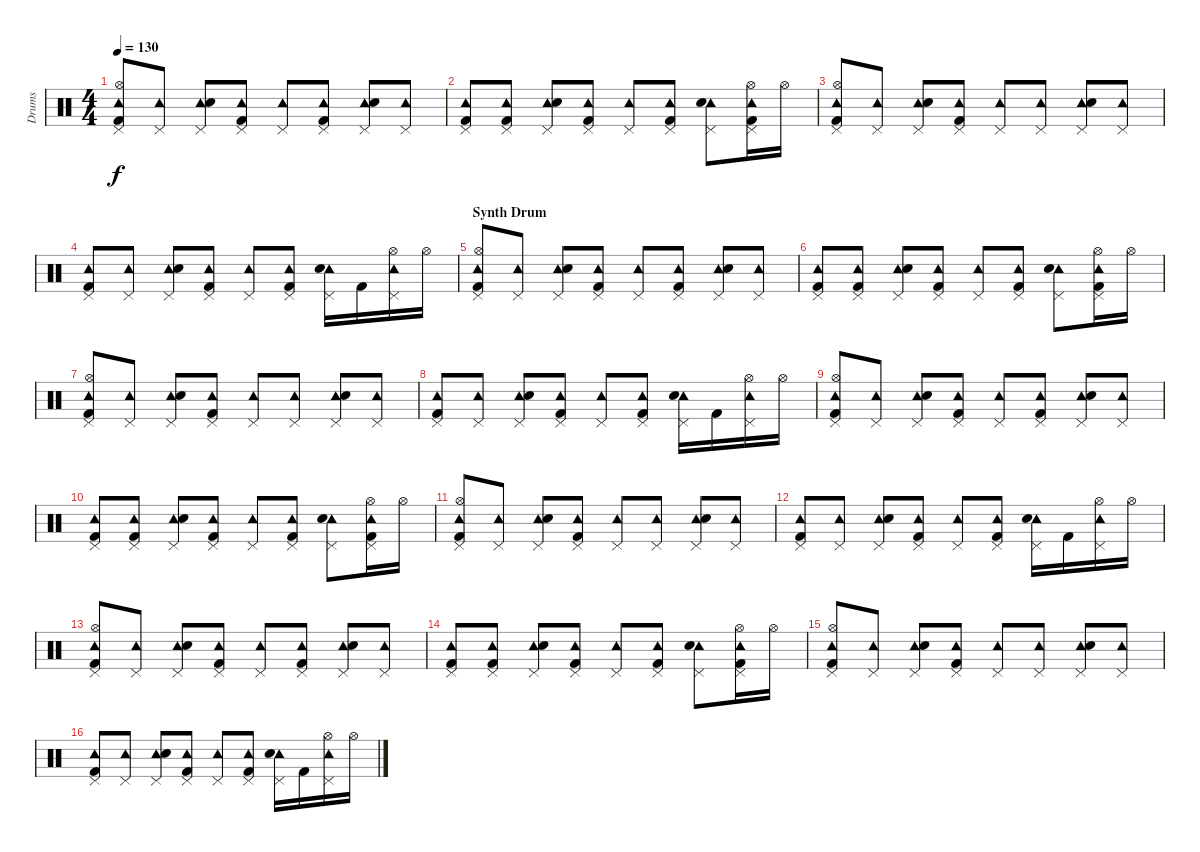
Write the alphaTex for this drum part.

\track ("Drums" "Drums") {instrument percussion}
\staff {score}
\articulation defaults
\ts (4 4)
\tempo 130
\clef neutral
\ks c
("Tambourine (hit)" "Pedal Hi-Hat (hit)" "Hi-Hat (open)" "Kick (hit) 2").8{dy f} ("Tambourine (hit)" "Pedal Hi-Hat (hit)").8 ("Tambourine (hit)" "Pedal Hi-Hat (hit)" "Electric Snare (hit)").8 ("Tambourine (hit)" "Pedal Hi-Hat (hit)" "Kick (hit) 2").8 ("Tambourine (hit)" "Pedal Hi-Hat (hit)").8 ("Tambourine (hit)" "Pedal Hi-Hat (hit)" "Kick (hit) 2").8 ("Tambourine (hit)" "Pedal Hi-Hat (hit)" "Electric Snare (hit)").8 ("Tambourine (hit)" "Pedal Hi-Hat (hit)").8 |
("Tambourine (hit)" "Pedal Hi-Hat (hit)" "Kick (hit) 2").8 ("Tambourine (hit)" "Pedal Hi-Hat (hit)" "Kick (hit) 2").8 ("Tambourine (hit)" "Pedal Hi-Hat (hit)" "Electric Snare (hit)").8 ("Tambourine (hit)" "Pedal Hi-Hat (hit)" "Kick (hit) 2").8 ("Tambourine (hit)" "Pedal Hi-Hat (hit)").8 ("Tambourine (hit)" "Pedal Hi-Hat (hit)" "Kick (hit) 2").8 ("Tambourine (hit)" "Pedal Hi-Hat (hit)" "Electric Snare (hit)").8 ("Tambourine (hit)" "Pedal Hi-Hat (hit)" "Hi-Hat (open)" "Kick (hit) 2").16 "Hi-Hat (open)".16 |
("Tambourine (hit)" "Pedal Hi-Hat (hit)" "Hi-Hat (open)" "Kick (hit) 2").8 ("Tambourine (hit)" "Pedal Hi-Hat (hit)").8 ("Tambourine (hit)" "Pedal Hi-Hat (hit)" "Electric Snare (hit)").8 ("Tambourine (hit)" "Pedal Hi-Hat (hit)" "Kick (hit) 2").8 ("Tambourine (hit)" "Pedal Hi-Hat (hit)").8 ("Tambourine (hit)" "Pedal Hi-Hat (hit)").8 ("Tambourine (hit)" "Pedal Hi-Hat (hit)" "Electric Snare (hit)").8 ("Tambourine (hit)" "Pedal Hi-Hat (hit)").8 |
("Tambourine (hit)" "Pedal Hi-Hat (hit)" "Kick (hit) 2").8 ("Tambourine (hit)" "Pedal Hi-Hat (hit)").8 ("Tambourine (hit)" "Pedal Hi-Hat (hit)" "Electric Snare (hit)").8 ("Tambourine (hit)" "Pedal Hi-Hat (hit)" "Kick (hit) 2").8 ("Tambourine (hit)" "Pedal Hi-Hat (hit)").8 ("Tambourine (hit)" "Pedal Hi-Hat (hit)" "Kick (hit) 2").8 ("Tambourine (hit)" "Pedal Hi-Hat (hit)" "Electric Snare (hit)").16 "Kick (hit) 2".16 ("Tambourine (hit)" "Pedal Hi-Hat (hit)" "Hi-Hat (open)").16 "Hi-Hat (open)".16 |
\section ("" "Synth Drum")
("Tambourine (hit)" "Pedal Hi-Hat (hit)" "Hi-Hat (open)" "Kick (hit) 2").8 ("Tambourine (hit)" "Pedal Hi-Hat (hit)").8 ("Tambourine (hit)" "Pedal Hi-Hat (hit)" "Electric Snare (hit)").8 ("Tambourine (hit)" "Pedal Hi-Hat (hit)" "Kick (hit) 2").8 ("Tambourine (hit)" "Pedal Hi-Hat (hit)").8 ("Tambourine (hit)" "Pedal Hi-Hat (hit)" "Kick (hit) 2").8 ("Tambourine (hit)" "Pedal Hi-Hat (hit)" "Electric Snare (hit)").8 ("Tambourine (hit)" "Pedal Hi-Hat (hit)").8 |
("Tambourine (hit)" "Pedal Hi-Hat (hit)" "Kick (hit) 2").8 ("Tambourine (hit)" "Pedal Hi-Hat (hit)" "Kick (hit) 2").8 ("Tambourine (hit)" "Pedal Hi-Hat (hit)" "Electric Snare (hit)").8 ("Tambourine (hit)" "Pedal Hi-Hat (hit)" "Kick (hit) 2").8 ("Tambourine (hit)" "Pedal Hi-Hat (hit)").8 ("Tambourine (hit)" "Pedal Hi-Hat (hit)" "Kick (hit) 2").8 ("Tambourine (hit)" "Pedal Hi-Hat (hit)" "Electric Snare (hit)").8 ("Tambourine (hit)" "Pedal Hi-Hat (hit)" "Hi-Hat (open)" "Kick (hit) 2").16 "Hi-Hat (open)".16 |
("Tambourine (hit)" "Pedal Hi-Hat (hit)" "Hi-Hat (open)" "Kick (hit) 2").8 ("Tambourine (hit)" "Pedal Hi-Hat (hit)").8 ("Tambourine (hit)" "Pedal Hi-Hat (hit)" "Electric Snare (hit)").8 ("Tambourine (hit)" "Pedal Hi-Hat (hit)" "Kick (hit) 2").8 ("Tambourine (hit)" "Pedal Hi-Hat (hit)").8 ("Tambourine (hit)" "Pedal Hi-Hat (hit)").8 ("Tambourine (hit)" "Pedal Hi-Hat (hit)" "Electric Snare (hit)").8 ("Tambourine (hit)" "Pedal Hi-Hat (hit)").8 |
("Tambourine (hit)" "Pedal Hi-Hat (hit)" "Kick (hit) 2").8 ("Tambourine (hit)" "Pedal Hi-Hat (hit)").8 ("Tambourine (hit)" "Pedal Hi-Hat (hit)" "Electric Snare (hit)").8 ("Tambourine (hit)" "Pedal Hi-Hat (hit)" "Kick (hit) 2").8 ("Tambourine (hit)" "Pedal Hi-Hat (hit)").8 ("Tambourine (hit)" "Pedal Hi-Hat (hit)" "Kick (hit) 2").8 ("Tambourine (hit)" "Pedal Hi-Hat (hit)" "Electric Snare (hit)").16 "Kick (hit) 2".16 ("Tambourine (hit)" "Pedal Hi-Hat (hit)" "Hi-Hat (open)").16 "Hi-Hat (open)".16 |
("Tambourine (hit)" "Pedal Hi-Hat (hit)" "Hi-Hat (open)" "Kick (hit) 2").8 ("Tambourine (hit)" "Pedal Hi-Hat (hit)").8 ("Tambourine (hit)" "Pedal Hi-Hat (hit)" "Electric Snare (hit)").8 ("Tambourine (hit)" "Pedal Hi-Hat (hit)" "Kick (hit) 2").8 ("Tambourine (hit)" "Pedal Hi-Hat (hit)").8 ("Tambourine (hit)" "Pedal Hi-Hat (hit)" "Kick (hit) 2").8 ("Tambourine (hit)" "Pedal Hi-Hat (hit)" "Electric Snare (hit)").8 ("Tambourine (hit)" "Pedal Hi-Hat (hit)").8 |
("Tambourine (hit)" "Pedal Hi-Hat (hit)" "Kick (hit) 2").8 ("Tambourine (hit)" "Pedal Hi-Hat (hit)" "Kick (hit) 2").8 ("Tambourine (hit)" "Pedal Hi-Hat (hit)" "Electric Snare (hit)").8 ("Tambourine (hit)" "Pedal Hi-Hat (hit)" "Kick (hit) 2").8 ("Tambourine (hit)" "Pedal Hi-Hat (hit)").8 ("Tambourine (hit)" "Pedal Hi-Hat (hit)" "Kick (hit) 2").8 ("Tambourine (hit)" "Pedal Hi-Hat (hit)" "Electric Snare (hit)").8 ("Tambourine (hit)" "Pedal Hi-Hat (hit)" "Hi-Hat (open)" "Kick (hit) 2").16 "Hi-Hat (open)".16 |
("Tambourine (hit)" "Pedal Hi-Hat (hit)" "Hi-Hat (open)" "Kick (hit) 2").8 ("Tambourine (hit)" "Pedal Hi-Hat (hit)").8 ("Tambourine (hit)" "Pedal Hi-Hat (hit)" "Electric Snare (hit)").8 ("Tambourine (hit)" "Pedal Hi-Hat (hit)" "Kick (hit) 2").8 ("Tambourine (hit)" "Pedal Hi-Hat (hit)").8 ("Tambourine (hit)" "Pedal Hi-Hat (hit)").8 ("Tambourine (hit)" "Pedal Hi-Hat (hit)" "Electric Snare (hit)").8 ("Tambourine (hit)" "Pedal Hi-Hat (hit)").8 |
("Tambourine (hit)" "Pedal Hi-Hat (hit)" "Kick (hit) 2").8 ("Tambourine (hit)" "Pedal Hi-Hat (hit)").8 ("Tambourine (hit)" "Pedal Hi-Hat (hit)" "Electric Snare (hit)").8 ("Tambourine (hit)" "Pedal Hi-Hat (hit)" "Kick (hit) 2").8 ("Tambourine (hit)" "Pedal Hi-Hat (hit)").8 ("Tambourine (hit)" "Pedal Hi-Hat (hit)" "Kick (hit) 2").8 ("Tambourine (hit)" "Pedal Hi-Hat (hit)" "Electric Snare (hit)").16 "Kick (hit) 2".16 ("Tambourine (hit)" "Pedal Hi-Hat (hit)" "Hi-Hat (open)").16 "Hi-Hat (open)".16 |
("Tambourine (hit)" "Pedal Hi-Hat (hit)" "Hi-Hat (open)" "Kick (hit) 2").8 ("Tambourine (hit)" "Pedal Hi-Hat (hit)").8 ("Tambourine (hit)" "Pedal Hi-Hat (hit)" "Electric Snare (hit)").8 ("Tambourine (hit)" "Pedal Hi-Hat (hit)" "Kick (hit) 2").8 ("Tambourine (hit)" "Pedal Hi-Hat (hit)").8 ("Tambourine (hit)" "Pedal Hi-Hat (hit)" "Kick (hit) 2").8 ("Tambourine (hit)" "Pedal Hi-Hat (hit)" "Electric Snare (hit)").8 ("Tambourine (hit)" "Pedal Hi-Hat (hit)").8 |
("Tambourine (hit)" "Pedal Hi-Hat (hit)" "Kick (hit) 2").8 ("Tambourine (hit)" "Pedal Hi-Hat (hit)" "Kick (hit) 2").8 ("Tambourine (hit)" "Pedal Hi-Hat (hit)" "Electric Snare (hit)").8 ("Tambourine (hit)" "Pedal Hi-Hat (hit)" "Kick (hit) 2").8 ("Tambourine (hit)" "Pedal Hi-Hat (hit)").8 ("Tambourine (hit)" "Pedal Hi-Hat (hit)" "Kick (hit) 2").8 ("Tambourine (hit)" "Pedal Hi-Hat (hit)" "Electric Snare (hit)").8 ("Tambourine (hit)" "Pedal Hi-Hat (hit)" "Hi-Hat (open)" "Kick (hit) 2").16 "Hi-Hat (open)".16 |
("Tambourine (hit)" "Pedal Hi-Hat (hit)" "Hi-Hat (open)" "Kick (hit) 2").8 ("Tambourine (hit)" "Pedal Hi-Hat (hit)").8 ("Tambourine (hit)" "Pedal Hi-Hat (hit)" "Electric Snare (hit)").8 ("Tambourine (hit)" "Pedal Hi-Hat (hit)" "Kick (hit) 2").8 ("Tambourine (hit)" "Pedal Hi-Hat (hit)").8 ("Tambourine (hit)" "Pedal Hi-Hat (hit)").8 ("Tambourine (hit)" "Pedal Hi-Hat (hit)" "Electric Snare (hit)").8 ("Tambourine (hit)" "Pedal Hi-Hat (hit)").8 |
("Tambourine (hit)" "Pedal Hi-Hat (hit)" "Kick (hit) 2").8 ("Tambourine (hit)" "Pedal Hi-Hat (hit)").8 ("Tambourine (hit)" "Pedal Hi-Hat (hit)" "Electric Snare (hit)").8 ("Tambourine (hit)" "Pedal Hi-Hat (hit)" "Kick (hit) 2").8 ("Tambourine (hit)" "Pedal Hi-Hat (hit)").8 ("Tambourine (hit)" "Pedal Hi-Hat (hit)" "Kick (hit) 2").8 ("Tambourine (hit)" "Pedal Hi-Hat (hit)" "Electric Snare (hit)").16 "Kick (hit) 2".16 ("Tambourine (hit)" "Pedal Hi-Hat (hit)" "Hi-Hat (open)").16 "Hi-Hat (open)".16
